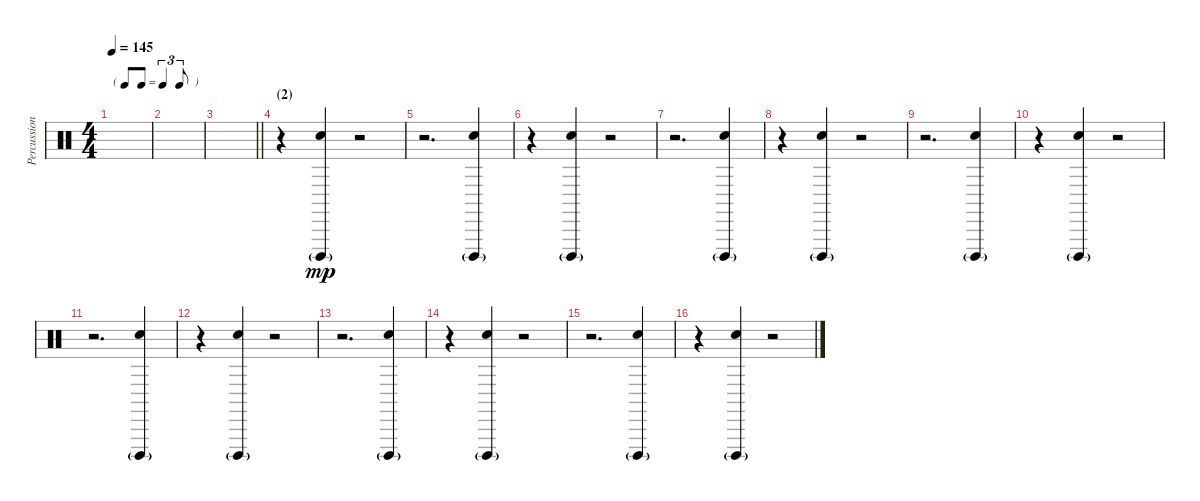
\track ("Percussion" "Percussion") {instrument percussion}
\staff {score}
\articulation defaults
\ts (4 4)
\tf triplet8th
\tempo 145
\clef neutral
\ks c
|
|
\barLineRight lightlight
|
\section ("" "(2)")
r.4 ("Cuica (open)"{g} "Hand Clap (hit)").4{dy mp} r.2 |
r.2{d} ("Cuica (open)"{g} "Hand Clap (hit)").4 |
r.4 ("Cuica (open)"{g} "Hand Clap (hit)").4 r.2 |
r.2{d} ("Cuica (open)"{g} "Hand Clap (hit)").4 |
r.4 ("Cuica (open)"{g} "Hand Clap (hit)").4 r.2 |
r.2{d} ("Cuica (open)"{g} "Hand Clap (hit)").4 |
r.4 ("Cuica (open)"{g} "Hand Clap (hit)").4 r.2 |
r.2{d} ("Cuica (open)"{g} "Hand Clap (hit)").4 |
r.4 ("Cuica (open)"{g} "Hand Clap (hit)").4 r.2 |
r.2{d} ("Cuica (open)"{g} "Hand Clap (hit)").4 |
r.4 ("Cuica (open)"{g} "Hand Clap (hit)").4 r.2 |
r.2{d} ("Cuica (open)"{g} "Hand Clap (hit)").4 |
r.4 ("Cuica (open)"{g} "Hand Clap (hit)").4 r.2
